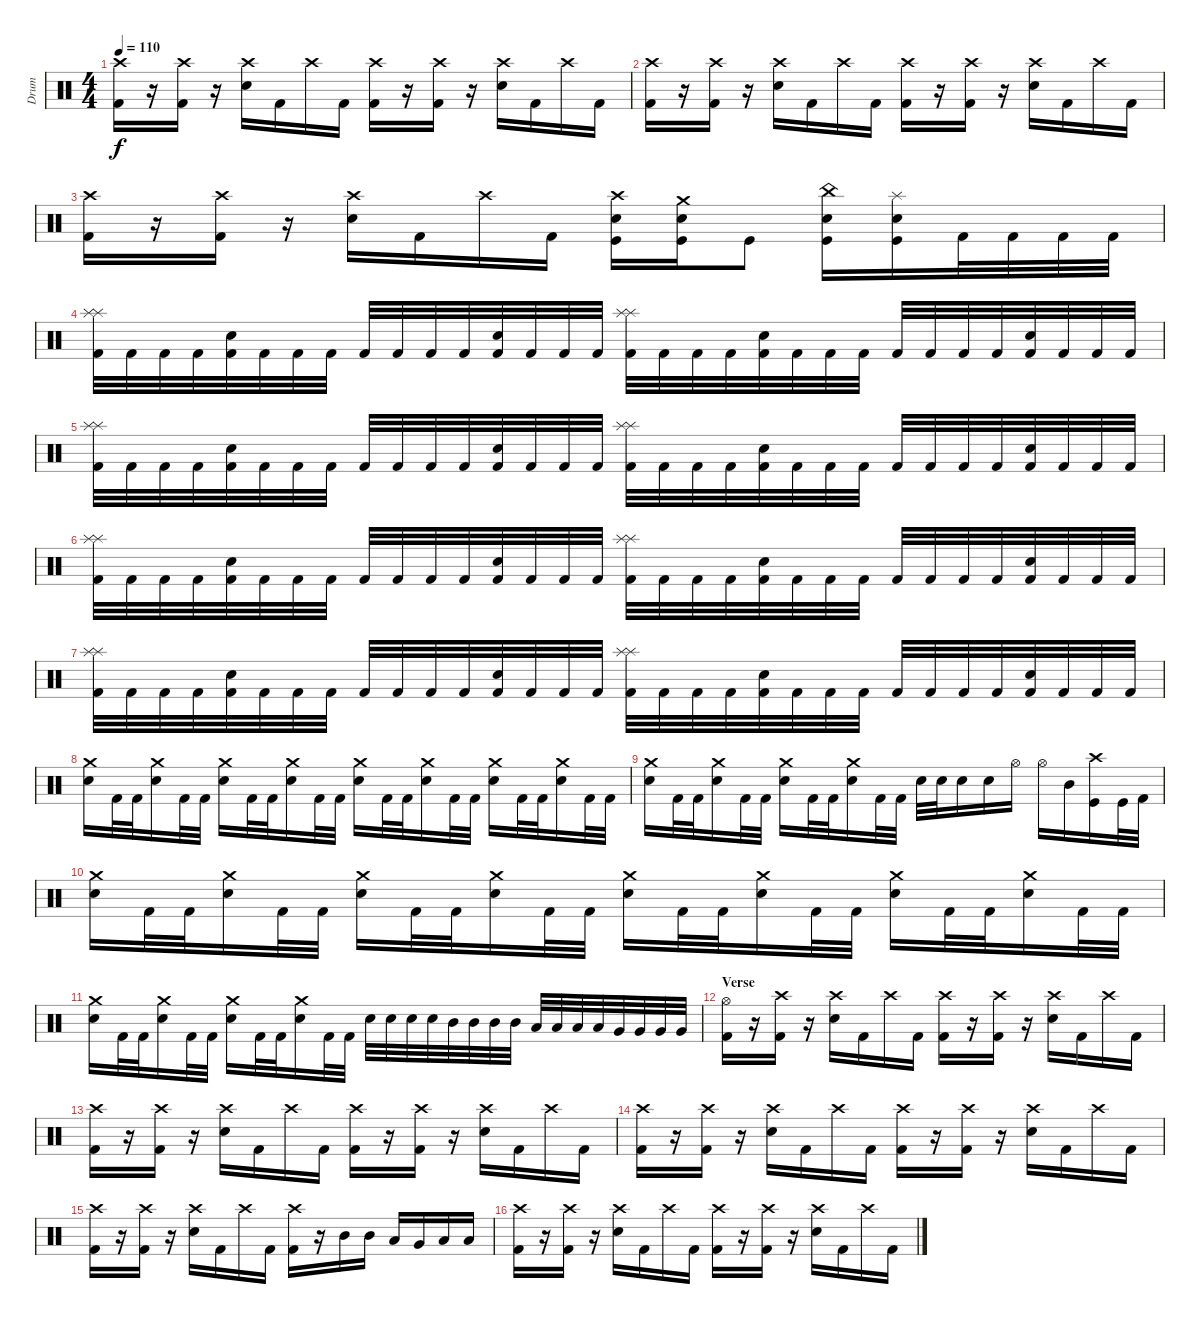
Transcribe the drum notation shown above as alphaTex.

\track ("Drum" "Drum") {instrument percussion}
\staff {score}
\articulation defaults
\ts (4 4)
\tempo 110
\clef neutral
\ks c
("Crash high (hit)" "Kick (hit) 2").16{dy f} r.16 ("Crash high (hit)" "Kick (hit) 2").16 r.16 ("Crash high (hit)" "Snare (hit) 2").16 "Kick (hit) 2".16 "Crash high (hit)".16 "Kick (hit) 2".16 ("Crash high (hit)" "Kick (hit) 2").16 r.16 ("Crash high (hit)" "Kick (hit) 2").16 r.16 ("Crash high (hit)" "Snare (hit) 2").16 "Kick (hit) 2".16 "Crash high (hit)".16 "Kick (hit) 2".16 |
("Crash high (hit)" "Kick (hit) 2").16 r.16 ("Crash high (hit)" "Kick (hit) 2").16 r.16 ("Crash high (hit)" "Snare (hit) 2").16 "Kick (hit) 2".16 "Crash high (hit)".16 "Kick (hit) 2".16 ("Crash high (hit)" "Kick (hit) 2").16 r.16 ("Crash high (hit)" "Kick (hit) 2").16 r.16 ("Crash high (hit)" "Snare (hit) 2").16 "Kick (hit) 2".16 "Crash high (hit)".16 "Kick (hit) 2".16 |
("Crash high (hit)" "Kick (hit) 2").16 r.16 ("Crash high (hit)" "Kick (hit) 2").16 r.16 ("Crash high (hit)" "Snare (hit) 2").16 "Kick (hit) 2".16 "Crash high (hit)".16 "Kick (hit) 2".16 ("Crash high (hit)" "Electric Snare (hit)" "Kick (hit)").16 ("Crash medium (hit)" "Electric Snare (hit)" "Kick (hit)").16 "Kick (hit)".8 ("China (hit)" "Electric Snare (hit)" "Kick (hit)").16 ("Splash (hit)" "Electric Snare (hit)" "Kick (hit)").16 "Kick (hit) 2".32 "Kick (hit) 2".32 "Kick (hit) 2".32 "Kick (hit) 2".32 |
("Kick (hit) 2" "Splash (hit)" "Splash (hit)").32 "Kick (hit) 2".32 "Kick (hit) 2".32 "Kick (hit) 2".32 ("Kick (hit) 2" "Electric Snare (hit)").32 "Kick (hit) 2".32 "Kick (hit) 2".32 "Kick (hit) 2".32 "Kick (hit) 2".32 "Kick (hit) 2".32 "Kick (hit) 2".32 "Kick (hit) 2".32 ("Kick (hit) 2" "Electric Snare (hit)").32 "Kick (hit) 2".32 "Kick (hit) 2".32 "Kick (hit) 2".32 ("Kick (hit) 2" "Splash (hit)" "Splash (hit)").32 "Kick (hit) 2".32 "Kick (hit) 2".32 "Kick (hit) 2".32 ("Kick (hit) 2" "Electric Snare (hit)").32 "Kick (hit) 2".32 "Kick (hit) 2".32 "Kick (hit) 2".32 "Kick (hit) 2".32 "Kick (hit) 2".32 "Kick (hit) 2".32 "Kick (hit) 2".32 ("Kick (hit) 2" "Electric Snare (hit)").32 "Kick (hit) 2".32 "Kick (hit) 2".32 "Kick (hit) 2".32 |
("Kick (hit) 2" "Splash (hit)" "Splash (hit)").32 "Kick (hit) 2".32 "Kick (hit) 2".32 "Kick (hit) 2".32 ("Kick (hit) 2" "Electric Snare (hit)").32 "Kick (hit) 2".32 "Kick (hit) 2".32 "Kick (hit) 2".32 "Kick (hit) 2".32 "Kick (hit) 2".32 "Kick (hit) 2".32 "Kick (hit) 2".32 ("Kick (hit) 2" "Electric Snare (hit)").32 "Kick (hit) 2".32 "Kick (hit) 2".32 "Kick (hit) 2".32 ("Kick (hit) 2" "Splash (hit)" "Splash (hit)").32 "Kick (hit) 2".32 "Kick (hit) 2".32 "Kick (hit) 2".32 ("Kick (hit) 2" "Electric Snare (hit)").32 "Kick (hit) 2".32 "Kick (hit) 2".32 "Kick (hit) 2".32 "Kick (hit) 2".32 "Kick (hit) 2".32 "Kick (hit) 2".32 "Kick (hit) 2".32 ("Kick (hit) 2" "Electric Snare (hit)").32 "Kick (hit) 2".32 "Kick (hit) 2".32 "Kick (hit) 2".32 |
("Kick (hit) 2" "Splash (hit)" "Splash (hit)").32 "Kick (hit) 2".32 "Kick (hit) 2".32 "Kick (hit) 2".32 ("Kick (hit) 2" "Electric Snare (hit)").32 "Kick (hit) 2".32 "Kick (hit) 2".32 "Kick (hit) 2".32 "Kick (hit) 2".32 "Kick (hit) 2".32 "Kick (hit) 2".32 "Kick (hit) 2".32 ("Kick (hit) 2" "Electric Snare (hit)").32 "Kick (hit) 2".32 "Kick (hit) 2".32 "Kick (hit) 2".32 ("Kick (hit) 2" "Splash (hit)" "Splash (hit)").32 "Kick (hit) 2".32 "Kick (hit) 2".32 "Kick (hit) 2".32 ("Kick (hit) 2" "Electric Snare (hit)").32 "Kick (hit) 2".32 "Kick (hit) 2".32 "Kick (hit) 2".32 "Kick (hit) 2".32 "Kick (hit) 2".32 "Kick (hit) 2".32 "Kick (hit) 2".32 ("Kick (hit) 2" "Electric Snare (hit)").32 "Kick (hit) 2".32 "Kick (hit) 2".32 "Kick (hit) 2".32 |
("Kick (hit) 2" "Splash (hit)" "Splash (hit)").32 "Kick (hit) 2".32 "Kick (hit) 2".32 "Kick (hit) 2".32 ("Kick (hit) 2" "Electric Snare (hit)").32 "Kick (hit) 2".32 "Kick (hit) 2".32 "Kick (hit) 2".32 "Kick (hit) 2".32 "Kick (hit) 2".32 "Kick (hit) 2".32 "Kick (hit) 2".32 ("Kick (hit) 2" "Electric Snare (hit)").32 "Kick (hit) 2".32 "Kick (hit) 2".32 "Kick (hit) 2".32 ("Kick (hit) 2" "Splash (hit)" "Splash (hit)").32 "Kick (hit) 2".32 "Kick (hit) 2".32 "Kick (hit) 2".32 ("Kick (hit) 2" "Electric Snare (hit)").32 "Kick (hit) 2".32 "Kick (hit) 2".32 "Kick (hit) 2".32 "Kick (hit) 2".32 "Kick (hit) 2".32 "Kick (hit) 2".32 "Kick (hit) 2".32 ("Kick (hit) 2" "Electric Snare (hit)").32 "Kick (hit) 2".32 "Kick (hit) 2".32 "Kick (hit) 2".32 |
("Crash medium (hit)" "Snare (hit) 2").16 "Kick (hit) 2".32 "Kick (hit) 2".32 ("Crash medium (hit)" "Snare (hit) 2").16 "Kick (hit) 2".32 "Kick (hit) 2".32 ("Crash medium (hit)" "Snare (hit) 2").16 "Kick (hit) 2".32 "Kick (hit) 2".32 ("Crash medium (hit)" "Snare (hit) 2").16 "Kick (hit) 2".32 "Kick (hit) 2".32 ("Crash medium (hit)" "Snare (hit) 2").16 "Kick (hit) 2".32 "Kick (hit) 2".32 ("Crash medium (hit)" "Snare (hit) 2").16 "Kick (hit) 2".32 "Kick (hit) 2".32 ("Crash medium (hit)" "Snare (hit) 2").16 "Kick (hit) 2".32 "Kick (hit) 2".32 ("Crash medium (hit)" "Snare (hit) 2").16 "Kick (hit) 2".32 "Kick (hit) 2".32 |
("Crash medium (hit)" "Snare (hit) 2").16 "Kick (hit) 2".32 "Kick (hit) 2".32 ("Crash medium (hit)" "Snare (hit) 2").16 "Kick (hit) 2".32 "Kick (hit) 2".32 ("Crash medium (hit)" "Snare (hit) 2").16 "Kick (hit) 2".32 "Kick (hit) 2".32 ("Crash medium (hit)" "Snare (hit) 2").16 "Kick (hit) 2".32 "Kick (hit) 2".32 "Snare (hit) 2".32 "Snare (hit) 2".32 "Electric Snare (hit)".16 "Snare (hit) 2".16 "Hi-Hat (open)".16 "Hi-Hat (open)".16 "Mid Tom (hit)".16 ("Crash high (hit)" "Kick (hit)").16 "Kick (hit)".32 "Kick (hit) 2".32 |
("Crash medium (hit)" "Snare (hit) 2").16 "Kick (hit) 2".32 "Kick (hit) 2".32 ("Crash medium (hit)" "Snare (hit) 2").16 "Kick (hit) 2".32 "Kick (hit) 2".32 ("Crash medium (hit)" "Snare (hit) 2").16 "Kick (hit) 2".32 "Kick (hit) 2".32 ("Crash medium (hit)" "Snare (hit) 2").16 "Kick (hit) 2".32 "Kick (hit) 2".32 ("Crash medium (hit)" "Snare (hit) 2").16 "Kick (hit) 2".32 "Kick (hit) 2".32 ("Crash medium (hit)" "Snare (hit) 2").16 "Kick (hit) 2".32 "Kick (hit) 2".32 ("Crash medium (hit)" "Snare (hit) 2").16 "Kick (hit) 2".32 "Kick (hit) 2".32 ("Crash medium (hit)" "Snare (hit) 2").16 "Kick (hit) 2".32 "Kick (hit) 2".32 |
("Crash medium (hit)" "Snare (hit) 2").16 "Kick (hit) 2".32 "Kick (hit) 2".32 ("Crash medium (hit)" "Snare (hit) 2").16 "Kick (hit) 2".32 "Kick (hit) 2".32 ("Crash medium (hit)" "Snare (hit) 2").16 "Kick (hit) 2".32 "Kick (hit) 2".32 ("Crash medium (hit)" "Snare (hit) 2").16 "Kick (hit) 2".32 "Kick (hit) 2".32 "Electric Snare (hit)".32 "Electric Snare (hit)".32 "Electric Snare (hit)".32 "Electric Snare (hit)".32 "Mid Tom (hit)".32 "Mid Tom (hit)".32 "Mid Tom (hit)".32 "Mid Tom (hit)".32 "Low Tom (hit)".32 "Low Tom (hit)".32 "Low Tom (hit)".32 "Low Tom (hit)".32 "Very Low Tom (hit)".32 "Very Low Tom (hit)".32 "Very Low Tom (hit)".32 "Very Low Tom (hit)".32 |
\section ("" "Verse")
("Hi-Hat (open)" "Kick (hit) 2").16 r.16 ("Crash high (hit)" "Kick (hit) 2").16 r.16 ("Crash high (hit)" "Snare (hit) 2").16 "Kick (hit) 2".16 "Crash high (hit)".16 "Kick (hit) 2".16 ("Crash high (hit)" "Kick (hit) 2").16 r.16 ("Crash high (hit)" "Kick (hit) 2").16 r.16 ("Crash high (hit)" "Snare (hit) 2").16 "Kick (hit) 2".16 "Crash high (hit)".16 "Kick (hit) 2".16 |
("Crash high (hit)" "Kick (hit) 2").16 r.16 ("Crash high (hit)" "Kick (hit) 2").16 r.16 ("Crash high (hit)" "Snare (hit) 2").16 "Kick (hit) 2".16 "Crash high (hit)".16 "Kick (hit) 2".16 ("Crash high (hit)" "Kick (hit) 2").16 r.16 ("Crash high (hit)" "Kick (hit) 2").16 r.16 ("Crash high (hit)" "Snare (hit) 2").16 "Kick (hit) 2".16 "Crash high (hit)".16 "Kick (hit) 2".16 |
("Crash high (hit)" "Kick (hit) 2").16 r.16 ("Crash high (hit)" "Kick (hit) 2").16 r.16 ("Crash high (hit)" "Snare (hit) 2").16 "Kick (hit) 2".16 "Crash high (hit)".16 "Kick (hit) 2".16 ("Crash high (hit)" "Kick (hit) 2").16 r.16 ("Crash high (hit)" "Kick (hit) 2").16 r.16 ("Crash high (hit)" "Snare (hit) 2").16 "Kick (hit) 2".16 "Crash high (hit)".16 "Kick (hit) 2".16 |
("Crash high (hit)" "Kick (hit) 2").16 r.16 ("Crash high (hit)" "Kick (hit) 2").16 r.16 ("Crash high (hit)" "Snare (hit) 2").16 "Kick (hit) 2".16 "Crash high (hit)".16 "Kick (hit) 2".16 ("Crash high (hit)" "Kick (hit) 2").16 r.16 "Mid Tom (hit)".16 "Mid Tom (hit)".16 "Low Tom (hit)".16 "Very Low Tom (hit)".16 "Low Floor Tom (hit)".16 "Low Floor Tom (hit)".16 |
("Crash high (hit)" "Kick (hit) 2").16 r.16 ("Crash high (hit)" "Kick (hit) 2").16 r.16 ("Crash high (hit)" "Snare (hit) 2").16 "Kick (hit) 2".16 "Crash high (hit)".16 "Kick (hit) 2".16 ("Crash high (hit)" "Kick (hit) 2").16 r.16 ("Crash high (hit)" "Kick (hit) 2").16 r.16 ("Crash high (hit)" "Snare (hit) 2").16 "Kick (hit) 2".16 "Crash high (hit)".16 "Kick (hit) 2".16
